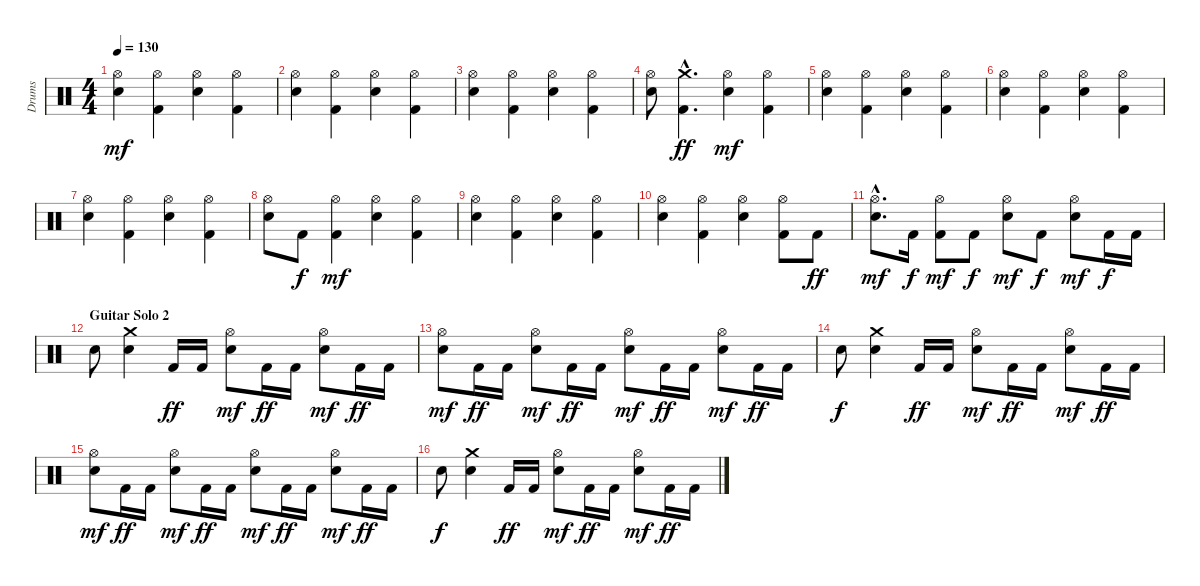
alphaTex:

\track ("Drums" "Drums") {instrument percussion}
\staff {score}
\articulation defaults
\ts (4 4)
\tempo 130
\clef neutral
\ks c
("Hi-Hat (open)" "Snare (hit) 2").4{dy mf} ("Kick (hit) 2" "Hi-Hat (open)").4 ("Hi-Hat (open)" "Snare (hit) 2").4 ("Kick (hit) 2" "Hi-Hat (open)").4 |
("Hi-Hat (open)" "Snare (hit) 2").4 ("Kick (hit) 2" "Hi-Hat (open)").4 ("Hi-Hat (open)" "Snare (hit) 2").4 ("Kick (hit) 2" "Hi-Hat (open)").4 |
("Hi-Hat (open)" "Snare (hit) 2").4 ("Kick (hit) 2" "Hi-Hat (open)").4 ("Hi-Hat (open)" "Snare (hit) 2").4 ("Kick (hit) 2" "Hi-Hat (open)").4 |
("Hi-Hat (open)" "Snare (hit) 2").8 ("Kick (hit) 2"{hac} "Crash medium (hit)"{hac}).4{d dy ff} ("Hi-Hat (open)" "Snare (hit) 2").4{dy mf} ("Kick (hit) 2" "Hi-Hat (open)").4 |
("Hi-Hat (open)" "Snare (hit) 2").4 ("Kick (hit) 2" "Hi-Hat (open)").4 ("Hi-Hat (open)" "Snare (hit) 2").4 ("Kick (hit) 2" "Hi-Hat (open)").4 |
("Hi-Hat (open)" "Snare (hit) 2").4 ("Kick (hit) 2" "Hi-Hat (open)").4 ("Hi-Hat (open)" "Snare (hit) 2").4 ("Kick (hit) 2" "Hi-Hat (open)").4 |
("Hi-Hat (open)" "Snare (hit) 2").4 ("Kick (hit) 2" "Hi-Hat (open)").4 ("Hi-Hat (open)" "Snare (hit) 2").4 ("Kick (hit) 2" "Hi-Hat (open)").4 |
("Hi-Hat (open)" "Snare (hit) 2").8 "Kick (hit) 2".8{dy f} ("Kick (hit) 2" "Hi-Hat (open)").4{dy mf} ("Hi-Hat (open)" "Snare (hit) 2").4 ("Kick (hit) 2" "Hi-Hat (open)").4 |
("Hi-Hat (open)" "Snare (hit) 2").4 ("Kick (hit) 2" "Hi-Hat (open)").4 ("Hi-Hat (open)" "Snare (hit) 2").4 ("Kick (hit) 2" "Hi-Hat (open)").4 |
("Hi-Hat (open)" "Snare (hit) 2").4 ("Kick (hit) 2" "Hi-Hat (open)").4 ("Hi-Hat (open)" "Snare (hit) 2").4 ("Kick (hit) 2" "Hi-Hat (open)").8 "Kick (hit) 2".8{dy ff} |
("Hi-Hat (open)"{hac} "Snare (hit) 2"{hac}).8{d dy mf} "Kick (hit) 2".16{dy f} ("Kick (hit) 2" "Hi-Hat (open)").8{dy mf} "Kick (hit) 2".8{dy f} ("Hi-Hat (open)" "Snare (hit) 2").8{dy mf} "Kick (hit) 2".8{dy f} ("Hi-Hat (open)" "Snare (hit) 2").8{dy mf} "Kick (hit) 2".16{dy f} "Kick (hit) 2".16 |
\section ("" "Guitar Solo 2")
"Snare (hit) 2".8 ("Snare (hit) 2" "Crash medium (hit)").4 "Kick (hit) 2".16{dy ff} "Kick (hit) 2".16 ("Hi-Hat (open)" "Snare (hit) 2").8{dy mf} "Kick (hit) 2".16{dy ff} "Kick (hit) 2".16 ("Hi-Hat (open)" "Snare (hit) 2").8{dy mf} "Kick (hit) 2".16{dy ff} "Kick (hit) 2".16 |
("Hi-Hat (open)" "Snare (hit) 2").8{dy mf} "Kick (hit) 2".16{dy ff} "Kick (hit) 2".16 ("Hi-Hat (open)" "Snare (hit) 2").8{dy mf} "Kick (hit) 2".16{dy ff} "Kick (hit) 2".16 ("Hi-Hat (open)" "Snare (hit) 2").8{dy mf} "Kick (hit) 2".16{dy ff} "Kick (hit) 2".16 ("Hi-Hat (open)" "Snare (hit) 2").8{dy mf} "Kick (hit) 2".16{dy ff} "Kick (hit) 2".16 |
"Snare (hit) 2".8{dy f} ("Snare (hit) 2" "Crash medium (hit)").4 "Kick (hit) 2".16{dy ff} "Kick (hit) 2".16 ("Hi-Hat (open)" "Snare (hit) 2").8{dy mf} "Kick (hit) 2".16{dy ff} "Kick (hit) 2".16 ("Hi-Hat (open)" "Snare (hit) 2").8{dy mf} "Kick (hit) 2".16{dy ff} "Kick (hit) 2".16 |
("Hi-Hat (open)" "Snare (hit) 2").8{dy mf} "Kick (hit) 2".16{dy ff} "Kick (hit) 2".16 ("Hi-Hat (open)" "Snare (hit) 2").8{dy mf} "Kick (hit) 2".16{dy ff} "Kick (hit) 2".16 ("Hi-Hat (open)" "Snare (hit) 2").8{dy mf} "Kick (hit) 2".16{dy ff} "Kick (hit) 2".16 ("Hi-Hat (open)" "Snare (hit) 2").8{dy mf} "Kick (hit) 2".16{dy ff} "Kick (hit) 2".16 |
"Snare (hit) 2".8{dy f} ("Snare (hit) 2" "Crash medium (hit)").4 "Kick (hit) 2".16{dy ff} "Kick (hit) 2".16 ("Hi-Hat (open)" "Snare (hit) 2").8{dy mf} "Kick (hit) 2".16{dy ff} "Kick (hit) 2".16 ("Hi-Hat (open)" "Snare (hit) 2").8{dy mf} "Kick (hit) 2".16{dy ff} "Kick (hit) 2".16
